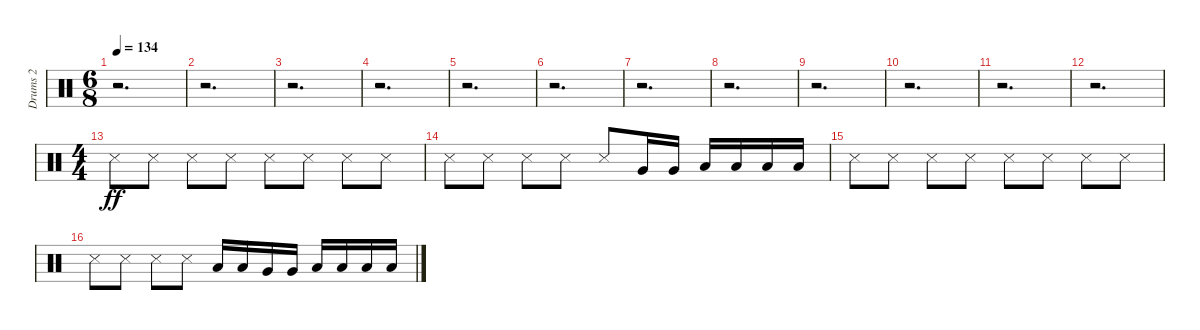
\track ("Drums 2" "Drums 2") {instrument percussion}
\staff {score}
\articulation defaults
\ts (6 8)
\tempo 134
\clef neutral
\ks c
r.2{d dy ff} |
r.2{d} |
r.2{d} |
r.2{d} |
r.2{d} |
r.2{d} |
r.2{d} |
r.2{d} |
r.2{d} |
r.2{d} |
r.2{d} |
r.2{d} |
\ts (4 4)
"Metronome (hit)".8 "Metronome (hit)".8 "Metronome (hit)".8 "Metronome (hit)".8 "Metronome (hit)".8 "Metronome (hit)".8 "Metronome (hit)".8 "Metronome (hit)".8 |
"Metronome (hit)".8 "Metronome (hit)".8 "Metronome (hit)".8 "Metronome (hit)".8 "Metronome (hit)".8 "Very Low Tom (hit)".16 "Very Low Tom (hit)".16 "Low Floor Tom (hit)".16 "Low Floor Tom (hit)".16 "Low Floor Tom (hit)".16 "Low Floor Tom (hit)".16 |
"Metronome (hit)".8 "Metronome (hit)".8 "Metronome (hit)".8 "Metronome (hit)".8 "Metronome (hit)".8 "Metronome (hit)".8 "Metronome (hit)".8 "Metronome (hit)".8 |
"Metronome (hit)".8 "Metronome (hit)".8 "Metronome (hit)".8 "Metronome (hit)".8 "Low Tom (hit)".16 "Low Tom (hit)".16 "Very Low Tom (hit)".16 "Very Low Tom (hit)".16 "Low Floor Tom (hit)".16 "Low Floor Tom (hit)".16 "Low Floor Tom (hit)".16 "Low Floor Tom (hit)".16
